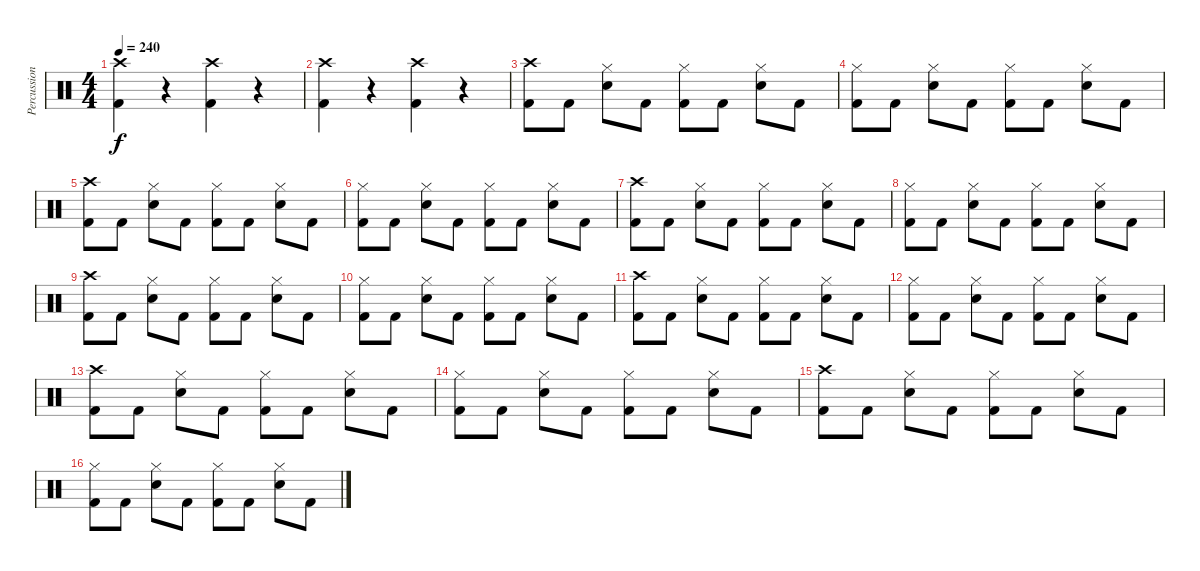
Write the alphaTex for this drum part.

\track ("Percussion" "Percussion") {instrument percussion}
\staff {score}
\articulation defaults
\ts (4 4)
\tempo 240
\clef neutral
\ks c
("Kick (hit) 2" "Crash high (hit)").4{dy f} r.4 ("Kick (hit) 2" "Crash high (hit)").4 r.4 |
("Kick (hit) 2" "Crash high (hit)").4 r.4 ("Kick (hit) 2" "Crash high (hit)").4 r.4 |
("Kick (hit) 2" "Crash high (hit)").8 "Kick (hit) 2".8 ("Snare (hit) 2" "Hi-Hat (closed)").8 "Kick (hit) 2".8 ("Kick (hit) 2" "Hi-Hat (closed)").8 "Kick (hit) 2".8 ("Snare (hit) 2" "Hi-Hat (closed)").8 "Kick (hit) 2".8 |
("Kick (hit) 2" "Hi-Hat (closed)").8 "Kick (hit) 2".8 ("Snare (hit) 2" "Hi-Hat (closed)").8 "Kick (hit) 2".8 ("Kick (hit) 2" "Hi-Hat (closed)").8 "Kick (hit) 2".8 ("Snare (hit) 2" "Hi-Hat (closed)").8 "Kick (hit) 2".8 |
("Kick (hit) 2" "Crash high (hit)").8 "Kick (hit) 2".8 ("Snare (hit) 2" "Hi-Hat (closed)").8 "Kick (hit) 2".8 ("Kick (hit) 2" "Hi-Hat (closed)").8 "Kick (hit) 2".8 ("Snare (hit) 2" "Hi-Hat (closed)").8 "Kick (hit) 2".8 |
("Kick (hit) 2" "Hi-Hat (closed)").8 "Kick (hit) 2".8 ("Snare (hit) 2" "Hi-Hat (closed)").8 "Kick (hit) 2".8 ("Kick (hit) 2" "Hi-Hat (closed)").8 "Kick (hit) 2".8 ("Snare (hit) 2" "Hi-Hat (closed)").8 "Kick (hit) 2".8 |
("Kick (hit) 2" "Crash high (hit)").8 "Kick (hit) 2".8 ("Snare (hit) 2" "Hi-Hat (closed)").8 "Kick (hit) 2".8 ("Kick (hit) 2" "Hi-Hat (closed)").8 "Kick (hit) 2".8 ("Snare (hit) 2" "Hi-Hat (closed)").8 "Kick (hit) 2".8 |
("Kick (hit) 2" "Hi-Hat (closed)").8 "Kick (hit) 2".8 ("Snare (hit) 2" "Hi-Hat (closed)").8 "Kick (hit) 2".8 ("Kick (hit) 2" "Hi-Hat (closed)").8 "Kick (hit) 2".8 ("Snare (hit) 2" "Hi-Hat (closed)").8 "Kick (hit) 2".8 |
("Kick (hit) 2" "Crash high (hit)").8 "Kick (hit) 2".8 ("Snare (hit) 2" "Hi-Hat (closed)").8 "Kick (hit) 2".8 ("Kick (hit) 2" "Hi-Hat (closed)").8 "Kick (hit) 2".8 ("Snare (hit) 2" "Hi-Hat (closed)").8 "Kick (hit) 2".8 |
("Kick (hit) 2" "Hi-Hat (closed)").8 "Kick (hit) 2".8 ("Snare (hit) 2" "Hi-Hat (closed)").8 "Kick (hit) 2".8 ("Kick (hit) 2" "Hi-Hat (closed)").8 "Kick (hit) 2".8 ("Snare (hit) 2" "Hi-Hat (closed)").8 "Kick (hit) 2".8 |
("Kick (hit) 2" "Crash high (hit)").8 "Kick (hit) 2".8 ("Snare (hit) 2" "Hi-Hat (closed)").8 "Kick (hit) 2".8 ("Kick (hit) 2" "Hi-Hat (closed)").8 "Kick (hit) 2".8 ("Snare (hit) 2" "Hi-Hat (closed)").8 "Kick (hit) 2".8 |
("Kick (hit) 2" "Hi-Hat (closed)").8 "Kick (hit) 2".8 ("Snare (hit) 2" "Hi-Hat (closed)").8 "Kick (hit) 2".8 ("Kick (hit) 2" "Hi-Hat (closed)").8 "Kick (hit) 2".8 ("Snare (hit) 2" "Hi-Hat (closed)").8 "Kick (hit) 2".8 |
("Kick (hit) 2" "Crash high (hit)").8 "Kick (hit) 2".8 ("Snare (hit) 2" "Hi-Hat (closed)").8 "Kick (hit) 2".8 ("Kick (hit) 2" "Hi-Hat (closed)").8 "Kick (hit) 2".8 ("Snare (hit) 2" "Hi-Hat (closed)").8 "Kick (hit) 2".8 |
("Kick (hit) 2" "Hi-Hat (closed)").8 "Kick (hit) 2".8 ("Snare (hit) 2" "Hi-Hat (closed)").8 "Kick (hit) 2".8 ("Kick (hit) 2" "Hi-Hat (closed)").8 "Kick (hit) 2".8 ("Snare (hit) 2" "Hi-Hat (closed)").8 "Kick (hit) 2".8 |
("Kick (hit) 2" "Crash high (hit)").8 "Kick (hit) 2".8 ("Snare (hit) 2" "Hi-Hat (closed)").8 "Kick (hit) 2".8 ("Kick (hit) 2" "Hi-Hat (closed)").8 "Kick (hit) 2".8 ("Snare (hit) 2" "Hi-Hat (closed)").8 "Kick (hit) 2".8 |
("Kick (hit) 2" "Hi-Hat (closed)").8 "Kick (hit) 2".8 ("Snare (hit) 2" "Hi-Hat (closed)").8 "Kick (hit) 2".8 ("Kick (hit) 2" "Hi-Hat (closed)").8 "Kick (hit) 2".8 ("Snare (hit) 2" "Hi-Hat (closed)").8 "Kick (hit) 2".8
